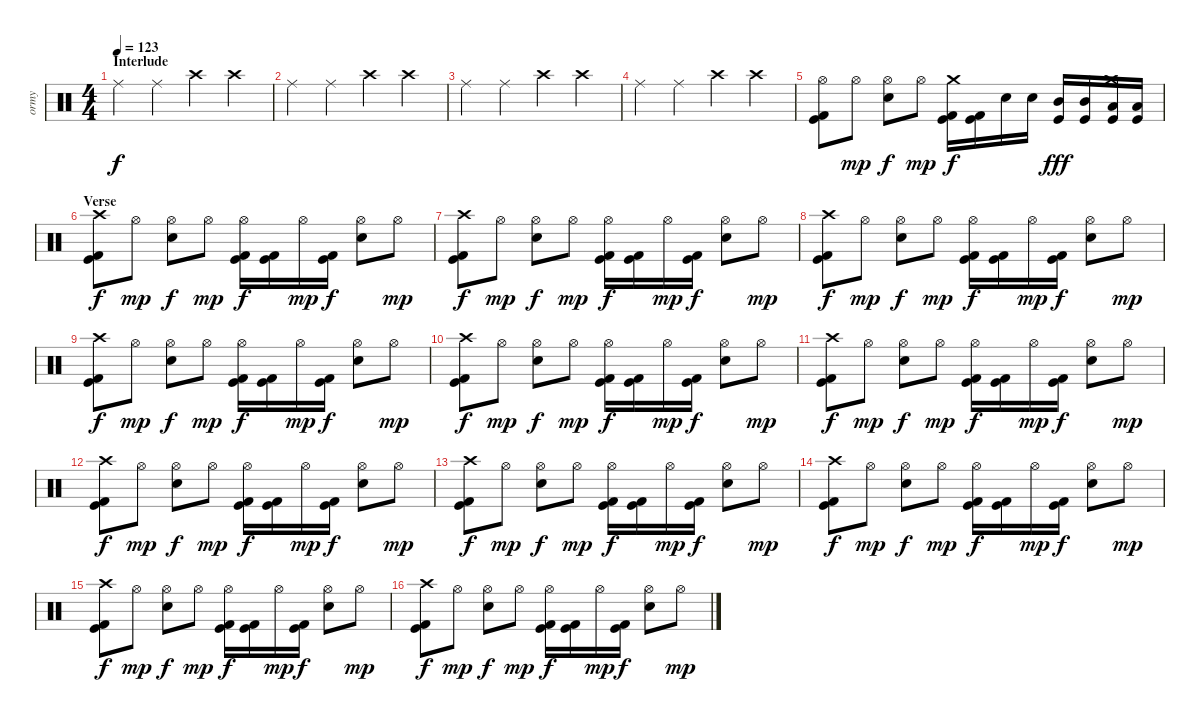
\track ("ormy" "ormy") {instrument percussion}
\staff {score}
\articulation defaults
\ts (4 4)
\section ("" "Interlude")
\tempo 123
\clef neutral
\ks c "Ride (middle)".4{dy f} "Ride (middle)".4 "Crash high (hit)".4 "Crash high (hit)".4
|
"Ride (middle)".4 "Ride (middle)".4 "Crash high (hit)".4 "Crash high (hit)".4 |
"Ride (middle)".4 "Ride (middle)".4 "Crash high (hit)".4 "Crash high (hit)".4 |
"Ride (middle)".4 "Ride (middle)".4 "Crash high (hit)".4 "Crash high (hit)".4 |
("Hi-Hat (open)" "Kick (hit) 2" "Kick (hit)").8 "Hi-Hat (open)".8{dy mp} ("Hi-Hat (open)" "Snare (hit) 2").8{dy f} "Hi-Hat (open)".8{dy mp} ("Crash medium (hit)" "Kick (hit) 2" "Kick (hit)").16{dy f} ("Kick (hit) 2" "Kick (hit)").16 "Snare (hit) 2".16 "Snare (hit) 2".16 ("Mid Tom (hit)" "Kick (hit)").16{dy fff} ("Mid Tom (hit)" "Kick (hit)").16 ("Crash medium (hit)" "Low Tom (hit)" "Kick (hit)").16 ("Low Tom (hit)" "Kick (hit)").16 |
\section ("" "Verse")
("Crash high (hit)" "Kick (hit) 2" "Kick (hit)").8{dy f} "Hi-Hat (open)".8{dy mp} ("Hi-Hat (open)" "Snare (hit) 2").8{dy f} "Hi-Hat (open)".8{dy mp} ("Hi-Hat (open)" "Kick (hit) 2" "Kick (hit)").16{dy f} ("Kick (hit) 2" "Kick (hit)").16 "Hi-Hat (open)".16{dy mp} ("Kick (hit) 2" "Kick (hit)").16{dy f} ("Hi-Hat (open)" "Snare (hit) 2").8 "Hi-Hat (open)".8{dy mp} |
("Crash high (hit)" "Kick (hit) 2" "Kick (hit)").8{dy f} "Hi-Hat (open)".8{dy mp} ("Hi-Hat (open)" "Snare (hit) 2").8{dy f} "Hi-Hat (open)".8{dy mp} ("Hi-Hat (open)" "Kick (hit) 2" "Kick (hit)").16{dy f} ("Kick (hit) 2" "Kick (hit)").16 "Hi-Hat (open)".16{dy mp} ("Kick (hit) 2" "Kick (hit)").16{dy f} ("Hi-Hat (open)" "Snare (hit) 2").8 "Hi-Hat (open)".8{dy mp} |
("Crash high (hit)" "Kick (hit) 2" "Kick (hit)").8{dy f} "Hi-Hat (open)".8{dy mp} ("Hi-Hat (open)" "Snare (hit) 2").8{dy f} "Hi-Hat (open)".8{dy mp} ("Hi-Hat (open)" "Kick (hit) 2" "Kick (hit)").16{dy f} ("Kick (hit) 2" "Kick (hit)").16 "Hi-Hat (open)".16{dy mp} ("Kick (hit) 2" "Kick (hit)").16{dy f} ("Hi-Hat (open)" "Snare (hit) 2").8 "Hi-Hat (open)".8{dy mp} |
("Crash high (hit)" "Kick (hit) 2" "Kick (hit)").8{dy f} "Hi-Hat (open)".8{dy mp} ("Hi-Hat (open)" "Snare (hit) 2").8{dy f} "Hi-Hat (open)".8{dy mp} ("Hi-Hat (open)" "Kick (hit) 2" "Kick (hit)").16{dy f} ("Kick (hit) 2" "Kick (hit)").16 "Hi-Hat (open)".16{dy mp} ("Kick (hit) 2" "Kick (hit)").16{dy f} ("Hi-Hat (open)" "Snare (hit) 2").8 "Hi-Hat (open)".8{dy mp} |
("Crash high (hit)" "Kick (hit) 2" "Kick (hit)").8{dy f} "Hi-Hat (open)".8{dy mp} ("Hi-Hat (open)" "Snare (hit) 2").8{dy f} "Hi-Hat (open)".8{dy mp} ("Hi-Hat (open)" "Kick (hit) 2" "Kick (hit)").16{dy f} ("Kick (hit) 2" "Kick (hit)").16 "Hi-Hat (open)".16{dy mp} ("Kick (hit) 2" "Kick (hit)").16{dy f} ("Hi-Hat (open)" "Snare (hit) 2").8 "Hi-Hat (open)".8{dy mp} |
("Crash high (hit)" "Kick (hit) 2" "Kick (hit)").8{dy f} "Hi-Hat (open)".8{dy mp} ("Hi-Hat (open)" "Snare (hit) 2").8{dy f} "Hi-Hat (open)".8{dy mp} ("Hi-Hat (open)" "Kick (hit) 2" "Kick (hit)").16{dy f} ("Kick (hit) 2" "Kick (hit)").16 "Hi-Hat (open)".16{dy mp} ("Kick (hit) 2" "Kick (hit)").16{dy f} ("Hi-Hat (open)" "Snare (hit) 2").8 "Hi-Hat (open)".8{dy mp} |
("Crash high (hit)" "Kick (hit) 2" "Kick (hit)").8{dy f} "Hi-Hat (open)".8{dy mp} ("Hi-Hat (open)" "Snare (hit) 2").8{dy f} "Hi-Hat (open)".8{dy mp} ("Hi-Hat (open)" "Kick (hit) 2" "Kick (hit)").16{dy f} ("Kick (hit) 2" "Kick (hit)").16 "Hi-Hat (open)".16{dy mp} ("Kick (hit) 2" "Kick (hit)").16{dy f} ("Hi-Hat (open)" "Snare (hit) 2").8 "Hi-Hat (open)".8{dy mp} |
("Crash high (hit)" "Kick (hit) 2" "Kick (hit)").8{dy f} "Hi-Hat (open)".8{dy mp} ("Hi-Hat (open)" "Snare (hit) 2").8{dy f} "Hi-Hat (open)".8{dy mp} ("Hi-Hat (open)" "Kick (hit) 2" "Kick (hit)").16{dy f} ("Kick (hit) 2" "Kick (hit)").16 "Hi-Hat (open)".16{dy mp} ("Kick (hit) 2" "Kick (hit)").16{dy f} ("Hi-Hat (open)" "Snare (hit) 2").8 "Hi-Hat (open)".8{dy mp} |
("Crash high (hit)" "Kick (hit) 2" "Kick (hit)").8{dy f} "Hi-Hat (open)".8{dy mp} ("Hi-Hat (open)" "Snare (hit) 2").8{dy f} "Hi-Hat (open)".8{dy mp} ("Hi-Hat (open)" "Kick (hit) 2" "Kick (hit)").16{dy f} ("Kick (hit) 2" "Kick (hit)").16 "Hi-Hat (open)".16{dy mp} ("Kick (hit) 2" "Kick (hit)").16{dy f} ("Hi-Hat (open)" "Snare (hit) 2").8 "Hi-Hat (open)".8{dy mp} |
("Crash high (hit)" "Kick (hit) 2" "Kick (hit)").8{dy f} "Hi-Hat (open)".8{dy mp} ("Hi-Hat (open)" "Snare (hit) 2").8{dy f} "Hi-Hat (open)".8{dy mp} ("Hi-Hat (open)" "Kick (hit) 2" "Kick (hit)").16{dy f} ("Kick (hit) 2" "Kick (hit)").16 "Hi-Hat (open)".16{dy mp} ("Kick (hit) 2" "Kick (hit)").16{dy f} ("Hi-Hat (open)" "Snare (hit) 2").8 "Hi-Hat (open)".8{dy mp} |
("Crash high (hit)" "Kick (hit) 2" "Kick (hit)").8{dy f} "Hi-Hat (open)".8{dy mp} ("Hi-Hat (open)" "Snare (hit) 2").8{dy f} "Hi-Hat (open)".8{dy mp} ("Hi-Hat (open)" "Kick (hit) 2" "Kick (hit)").16{dy f} ("Kick (hit) 2" "Kick (hit)").16 "Hi-Hat (open)".16{dy mp} ("Kick (hit) 2" "Kick (hit)").16{dy f} ("Hi-Hat (open)" "Snare (hit) 2").8 "Hi-Hat (open)".8{dy mp}
